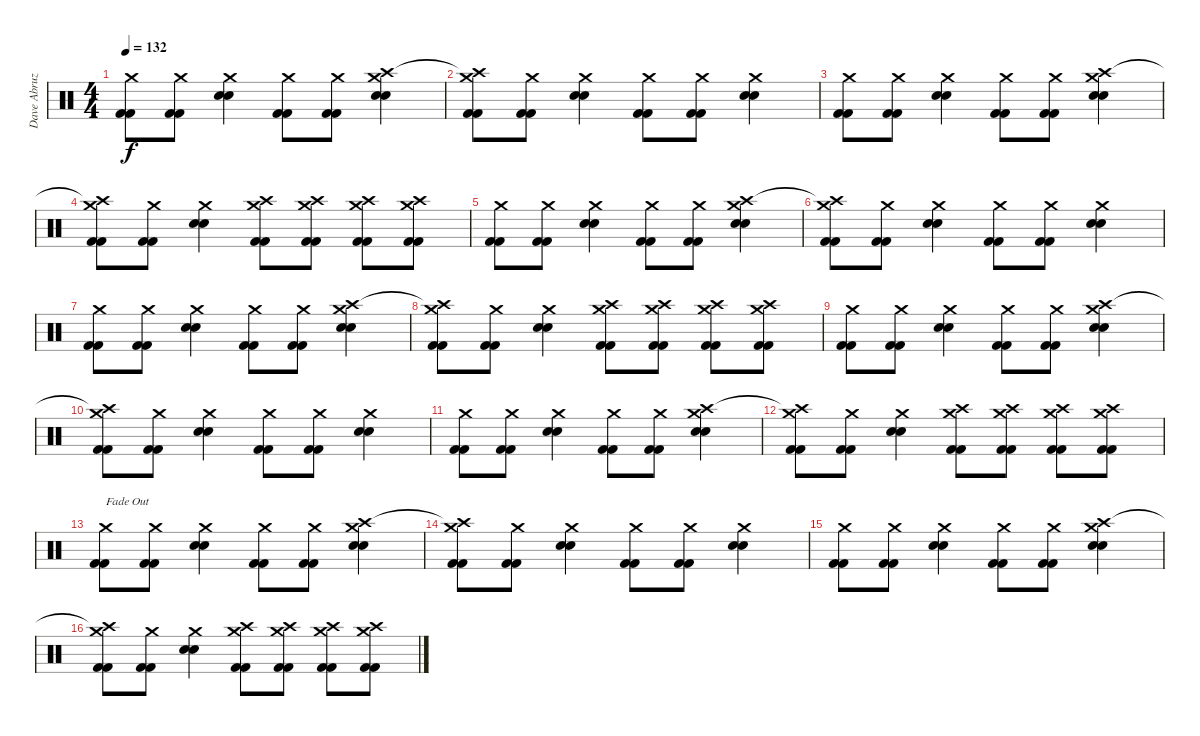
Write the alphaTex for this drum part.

\track ("Dave Abruzzesse" "Dave Abruz") {instrument percussion}
\staff {score}
\articulation defaults
\ts (4 4)
\tempo 132
\clef neutral
\ks c
("Crash medium (hit)" "Kick (hit) 2" "Kick (hit) 2").8{dy f} ("Crash medium (hit)" "Kick (hit) 2" "Kick (hit) 2").8 ("Crash medium (hit)" "Snare (hit) 2" "Snare (hit) 2").4 ("Crash medium (hit)" "Kick (hit) 2" "Kick (hit) 2").8 ("Crash medium (hit)" "Kick (hit) 2" "Kick (hit) 2").8 ("Crash high (hit)" "Crash medium (hit)" "Snare (hit) 2" "Snare (hit) 2").4 |
("Crash high (hit)"{t} "Crash medium (hit)" "Kick (hit) 2" "Kick (hit) 2").8 ("Crash medium (hit)" "Kick (hit) 2" "Kick (hit) 2").8 ("Crash medium (hit)" "Snare (hit) 2" "Snare (hit) 2").4 ("Crash medium (hit)" "Kick (hit) 2" "Kick (hit) 2").8 ("Crash medium (hit)" "Kick (hit) 2" "Kick (hit) 2").8 ("Crash medium (hit)" "Snare (hit) 2" "Snare (hit) 2").4 |
("Crash medium (hit)" "Kick (hit) 2" "Kick (hit) 2").8 ("Crash medium (hit)" "Kick (hit) 2" "Kick (hit) 2").8 ("Crash medium (hit)" "Snare (hit) 2" "Snare (hit) 2").4 ("Crash medium (hit)" "Kick (hit) 2" "Kick (hit) 2").8 ("Crash medium (hit)" "Kick (hit) 2" "Kick (hit) 2").8 ("Crash high (hit)" "Crash medium (hit)" "Snare (hit) 2" "Snare (hit) 2").4 |
("Crash high (hit)"{t} "Crash medium (hit)" "Kick (hit) 2" "Kick (hit) 2").8 ("Crash medium (hit)" "Kick (hit) 2" "Kick (hit) 2").8 ("Crash medium (hit)" "Snare (hit) 2" "Snare (hit) 2").4 ("Crash high (hit)" "Crash medium (hit)" "Kick (hit) 2" "Kick (hit) 2").8 ("Crash high (hit)" "Crash medium (hit)" "Kick (hit) 2" "Kick (hit) 2").8 ("Crash high (hit)" "Crash medium (hit)" "Kick (hit) 2" "Kick (hit) 2").8 ("Crash high (hit)" "Crash medium (hit)" "Kick (hit) 2" "Kick (hit) 2").8 |
("Crash medium (hit)" "Kick (hit) 2" "Kick (hit) 2").8 ("Crash medium (hit)" "Kick (hit) 2" "Kick (hit) 2").8 ("Crash medium (hit)" "Snare (hit) 2" "Snare (hit) 2").4 ("Crash medium (hit)" "Kick (hit) 2" "Kick (hit) 2").8 ("Crash medium (hit)" "Kick (hit) 2" "Kick (hit) 2").8 ("Crash high (hit)" "Crash medium (hit)" "Snare (hit) 2" "Snare (hit) 2").4 |
("Crash high (hit)"{t} "Crash medium (hit)" "Kick (hit) 2" "Kick (hit) 2").8 ("Crash medium (hit)" "Kick (hit) 2" "Kick (hit) 2").8 ("Crash medium (hit)" "Snare (hit) 2" "Snare (hit) 2").4 ("Crash medium (hit)" "Kick (hit) 2" "Kick (hit) 2").8 ("Crash medium (hit)" "Kick (hit) 2" "Kick (hit) 2").8 ("Crash medium (hit)" "Snare (hit) 2" "Snare (hit) 2").4 |
("Crash medium (hit)" "Kick (hit) 2" "Kick (hit) 2").8 ("Crash medium (hit)" "Kick (hit) 2" "Kick (hit) 2").8 ("Crash medium (hit)" "Snare (hit) 2" "Snare (hit) 2").4 ("Crash medium (hit)" "Kick (hit) 2" "Kick (hit) 2").8 ("Crash medium (hit)" "Kick (hit) 2" "Kick (hit) 2").8 ("Crash high (hit)" "Crash medium (hit)" "Snare (hit) 2" "Snare (hit) 2").4 |
("Crash high (hit)"{t} "Crash medium (hit)" "Kick (hit) 2" "Kick (hit) 2").8 ("Crash medium (hit)" "Kick (hit) 2" "Kick (hit) 2").8 ("Crash medium (hit)" "Snare (hit) 2" "Snare (hit) 2").4 ("Crash high (hit)" "Crash medium (hit)" "Kick (hit) 2" "Kick (hit) 2").8 ("Crash high (hit)" "Crash medium (hit)" "Kick (hit) 2" "Kick (hit) 2").8 ("Crash high (hit)" "Crash medium (hit)" "Kick (hit) 2" "Kick (hit) 2").8 ("Crash high (hit)" "Crash medium (hit)" "Kick (hit) 2" "Kick (hit) 2").8 |
("Crash medium (hit)" "Kick (hit) 2" "Kick (hit) 2").8 ("Crash medium (hit)" "Kick (hit) 2" "Kick (hit) 2").8 ("Crash medium (hit)" "Snare (hit) 2" "Snare (hit) 2").4 ("Crash medium (hit)" "Kick (hit) 2" "Kick (hit) 2").8 ("Crash medium (hit)" "Kick (hit) 2" "Kick (hit) 2").8 ("Crash high (hit)" "Crash medium (hit)" "Snare (hit) 2" "Snare (hit) 2").4 |
("Crash high (hit)"{t} "Crash medium (hit)" "Kick (hit) 2" "Kick (hit) 2").8 ("Crash medium (hit)" "Kick (hit) 2" "Kick (hit) 2").8 ("Crash medium (hit)" "Snare (hit) 2" "Snare (hit) 2").4 ("Crash medium (hit)" "Kick (hit) 2" "Kick (hit) 2").8 ("Crash medium (hit)" "Kick (hit) 2" "Kick (hit) 2").8 ("Crash medium (hit)" "Snare (hit) 2" "Snare (hit) 2").4 |
("Crash medium (hit)" "Kick (hit) 2" "Kick (hit) 2").8 ("Crash medium (hit)" "Kick (hit) 2" "Kick (hit) 2").8 ("Crash medium (hit)" "Snare (hit) 2" "Snare (hit) 2").4 ("Crash medium (hit)" "Kick (hit) 2" "Kick (hit) 2").8 ("Crash medium (hit)" "Kick (hit) 2" "Kick (hit) 2").8 ("Crash high (hit)" "Crash medium (hit)" "Snare (hit) 2" "Snare (hit) 2").4 |
("Crash high (hit)"{t} "Crash medium (hit)" "Kick (hit) 2" "Kick (hit) 2").8 ("Crash medium (hit)" "Kick (hit) 2" "Kick (hit) 2").8 ("Crash medium (hit)" "Snare (hit) 2" "Snare (hit) 2").4 ("Crash high (hit)" "Crash medium (hit)" "Kick (hit) 2" "Kick (hit) 2").8 ("Crash high (hit)" "Crash medium (hit)" "Kick (hit) 2" "Kick (hit) 2").8 ("Crash high (hit)" "Crash medium (hit)" "Kick (hit) 2" "Kick (hit) 2").8 ("Crash high (hit)" "Crash medium (hit)" "Kick (hit) 2" "Kick (hit) 2").8 |
("Crash medium (hit)" "Kick (hit) 2" "Kick (hit) 2").8{txt "Fade Out"} ("Crash medium (hit)" "Kick (hit) 2" "Kick (hit) 2").8 ("Crash medium (hit)" "Snare (hit) 2" "Snare (hit) 2").4 ("Crash medium (hit)" "Kick (hit) 2" "Kick (hit) 2").8 ("Crash medium (hit)" "Kick (hit) 2" "Kick (hit) 2").8 ("Crash high (hit)" "Crash medium (hit)" "Snare (hit) 2" "Snare (hit) 2").4 |
("Crash high (hit)"{t} "Crash medium (hit)" "Kick (hit) 2" "Kick (hit) 2").8 ("Crash medium (hit)" "Kick (hit) 2" "Kick (hit) 2").8 ("Crash medium (hit)" "Snare (hit) 2" "Snare (hit) 2").4 ("Crash medium (hit)" "Kick (hit) 2" "Kick (hit) 2").8 ("Crash medium (hit)" "Kick (hit) 2" "Kick (hit) 2").8 ("Crash medium (hit)" "Snare (hit) 2" "Snare (hit) 2").4 |
("Crash medium (hit)" "Kick (hit) 2" "Kick (hit) 2").8 ("Crash medium (hit)" "Kick (hit) 2" "Kick (hit) 2").8 ("Crash medium (hit)" "Snare (hit) 2" "Snare (hit) 2").4 ("Crash medium (hit)" "Kick (hit) 2" "Kick (hit) 2").8 ("Crash medium (hit)" "Kick (hit) 2" "Kick (hit) 2").8 ("Crash high (hit)" "Crash medium (hit)" "Snare (hit) 2" "Snare (hit) 2").4 |
("Crash high (hit)"{t} "Crash medium (hit)" "Kick (hit) 2" "Kick (hit) 2").8 ("Crash medium (hit)" "Kick (hit) 2" "Kick (hit) 2").8 ("Crash medium (hit)" "Snare (hit) 2" "Snare (hit) 2").4 ("Crash high (hit)" "Crash medium (hit)" "Kick (hit) 2" "Kick (hit) 2").8 ("Crash high (hit)" "Crash medium (hit)" "Kick (hit) 2" "Kick (hit) 2").8 ("Crash high (hit)" "Crash medium (hit)" "Kick (hit) 2" "Kick (hit) 2").8 ("Crash high (hit)" "Crash medium (hit)" "Kick (hit) 2" "Kick (hit) 2").8
